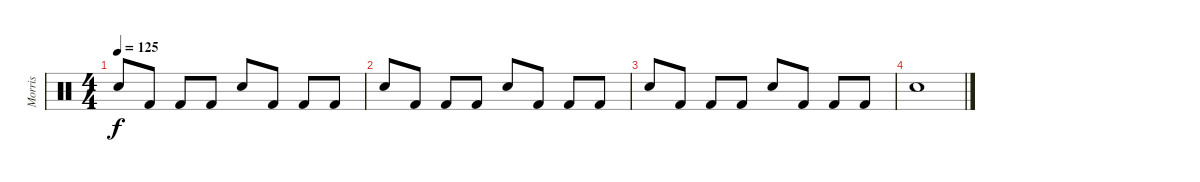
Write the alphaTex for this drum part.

\track ("Morris" "Morris") {instrument percussion}
\staff {score}
\articulation defaults
\ts (4 4)
\tempo 125
\clef neutral
\ks c "Electric Snare (hit)".8{dy f} "Kick (hit) 2".8 "Kick (hit) 2".8 "Kick (hit) 2".8 "Electric Snare (hit)".8 "Kick (hit) 2".8 "Kick (hit) 2".8 "Kick (hit) 2".8
|
"Electric Snare (hit)".8 "Kick (hit) 2".8 "Kick (hit) 2".8 "Kick (hit) 2".8 "Electric Snare (hit)".8 "Kick (hit) 2".8 "Kick (hit) 2".8 "Kick (hit) 2".8 |
"Electric Snare (hit)".8 "Kick (hit) 2".8 "Kick (hit) 2".8 "Kick (hit) 2".8 "Electric Snare (hit)".8 "Kick (hit) 2".8 "Kick (hit) 2".8 "Kick (hit) 2".8 |
"Electric Snare (hit)".1
